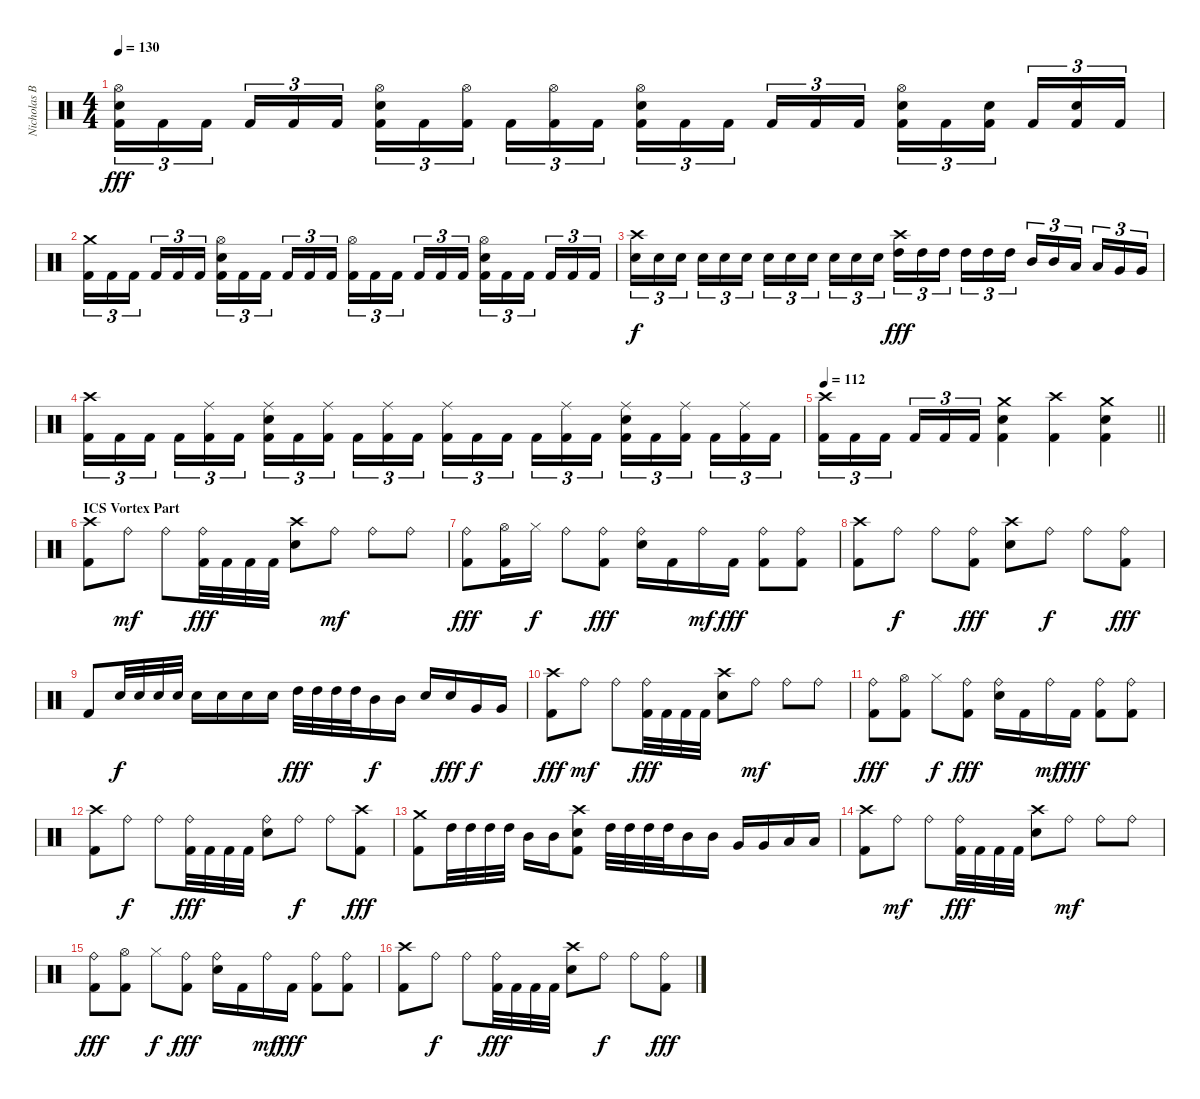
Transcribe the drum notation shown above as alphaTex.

\track ("Nicholas Barker" "Nicholas B") {instrument percussion}
\staff {score}
\articulation defaults
\ts (4 4)
\tempo 130
\clef neutral
\ks c
("Hi-Hat (open)" "Snare (hit) 2" "Kick (hit) 2").16{tu (3 2) dy fff} "Kick (hit) 2".16{tu (3 2)} "Kick (hit) 2".16{tu (3 2) beam splitsecondary} "Kick (hit) 2".16{tu (3 2)} "Kick (hit) 2".16{tu (3 2)} "Kick (hit) 2".16{tu (3 2)} ("Hi-Hat (open)" "Snare (hit) 2" "Kick (hit) 2").16{tu (3 2)} "Kick (hit) 2".16{tu (3 2)} ("Hi-Hat (open)" "Kick (hit) 2").16{tu (3 2) beam splitsecondary} "Kick (hit) 2".16{tu (3 2)} ("Hi-Hat (open)" "Kick (hit) 2").16{tu (3 2)} "Kick (hit) 2".16{tu (3 2)} ("Hi-Hat (open)" "Snare (hit) 2" "Kick (hit) 2").16{tu (3 2)} "Kick (hit) 2".16{tu (3 2)} "Kick (hit) 2".16{tu (3 2) beam splitsecondary} "Kick (hit) 2".16{tu (3 2)} "Kick (hit) 2".16{tu (3 2)} "Kick (hit) 2".16{tu (3 2)} ("Hi-Hat (open)" "Snare (hit) 2" "Kick (hit) 2").16{tu (3 2)} "Kick (hit) 2".16{tu (3 2)} ("Snare (hit) 2" "Kick (hit) 2").16{tu (3 2) beam splitsecondary} "Kick (hit) 2".16{tu (3 2)} ("Snare (hit) 2" "Kick (hit) 2").16{tu (3 2)} "Kick (hit) 2".16{tu (3 2)} |
("Crash medium (hit)" "Kick (hit) 2").16{tu (3 2)} "Kick (hit) 2".16{tu (3 2)} "Kick (hit) 2".16{tu (3 2) beam splitsecondary} "Kick (hit) 2".16{tu (3 2)} "Kick (hit) 2".16{tu (3 2)} "Kick (hit) 2".16{tu (3 2)} ("Hi-Hat (open)" "Snare (hit) 2" "Kick (hit) 2").16{tu (3 2)} "Kick (hit) 2".16{tu (3 2)} "Kick (hit) 2".16{tu (3 2) beam splitsecondary} "Kick (hit) 2".16{tu (3 2)} "Kick (hit) 2".16{tu (3 2)} "Kick (hit) 2".16{tu (3 2)} ("Hi-Hat (open)" "Kick (hit) 2").16{tu (3 2)} "Kick (hit) 2".16{tu (3 2)} "Kick (hit) 2".16{tu (3 2) beam splitsecondary} "Kick (hit) 2".16{tu (3 2)} "Kick (hit) 2".16{tu (3 2)} "Kick (hit) 2".16{tu (3 2)} ("Hi-Hat (open)" "Snare (hit) 2" "Kick (hit) 2").16{tu (3 2)} "Kick (hit) 2".16{tu (3 2)} "Kick (hit) 2".16{tu (3 2) beam splitsecondary} "Kick (hit) 2".16{tu (3 2)} "Kick (hit) 2".16{tu (3 2)} "Kick (hit) 2".16{tu (3 2)} |
("Crash high (hit)" "Snare (hit) 2").16{tu (3 2) dy f} "Snare (hit) 2".16{tu (3 2)} "Snare (hit) 2".16{tu (3 2) beam splitsecondary} "Snare (hit) 2".16{tu (3 2)} "Snare (hit) 2".16{tu (3 2)} "Snare (hit) 2".16{tu (3 2)} "Snare (hit) 2".16{tu (3 2)} "Snare (hit) 2".16{tu (3 2)} "Snare (hit) 2".16{tu (3 2) beam splitsecondary} "Snare (hit) 2".16{tu (3 2)} "Snare (hit) 2".16{tu (3 2)} "Snare (hit) 2".16{tu (3 2)} ("Crash high (hit)" "High Tom (hit)").16{tu (3 2) dy fff} "High Tom (hit)".16{tu (3 2)} "High Tom (hit)".16{tu (3 2) beam splitsecondary} "High Tom (hit)".16{tu (3 2)} "High Tom (hit)".16{tu (3 2)} "High Tom (hit)".16{tu (3 2)} "Mid Tom (hit)".16{tu (3 2)} "Mid Tom (hit)".16{tu (3 2)} "Low Tom (hit)".16{tu (3 2) beam splitsecondary} "Low Tom (hit)".16{tu (3 2)} "Very Low Tom (hit)".16{tu (3 2)} "Very Low Tom (hit)".16{tu (3 2)} |
("Crash high (hit)" "Kick (hit) 2").16{tu (3 2)} "Kick (hit) 2".16{tu (3 2)} "Kick (hit) 2".16{tu (3 2) beam splitsecondary} "Kick (hit) 2".16{tu (3 2)} ("Ride (middle)" "Kick (hit) 2").16{tu (3 2)} "Kick (hit) 2".16{tu (3 2)} ("Ride (middle)" "Snare (hit) 2" "Kick (hit) 2").16{tu (3 2)} "Kick (hit) 2".16{tu (3 2)} ("Ride (middle)" "Kick (hit) 2").16{tu (3 2) beam splitsecondary} "Kick (hit) 2".16{tu (3 2)} ("Ride (middle)" "Kick (hit) 2").16{tu (3 2)} "Kick (hit) 2".16{tu (3 2)} ("Ride (middle)" "Kick (hit) 2").16{tu (3 2)} "Kick (hit) 2".16{tu (3 2)} "Kick (hit) 2".16{tu (3 2) beam splitsecondary} "Kick (hit) 2".16{tu (3 2)} ("Ride (middle)" "Kick (hit) 2").16{tu (3 2)} "Kick (hit) 2".16{tu (3 2)} ("Ride (middle)" "Snare (hit) 2" "Kick (hit) 2").16{tu (3 2)} "Kick (hit) 2".16{tu (3 2)} ("Ride (middle)" "Kick (hit) 2").16{tu (3 2) beam splitsecondary} "Kick (hit) 2".16{tu (3 2)} ("Ride (middle)" "Kick (hit) 2").16{tu (3 2)} "Kick (hit) 2".16{tu (3 2)} |
\tempo 112
\barLineRight lightlight
("Crash high (hit)" "Kick (hit) 2").16{tu (3 2)} "Kick (hit) 2".16{tu (3 2)} "Kick (hit) 2".16{tu (3 2) beam splitsecondary} "Kick (hit) 2".16{tu (3 2)} "Kick (hit) 2".16{tu (3 2)} "Kick (hit) 2".16{tu (3 2)} ("Crash medium (hit)" "Snare (hit) 2" "Kick (hit) 2").4 ("Crash high (hit)" "Kick (hit) 2").4 ("Crash medium (hit)" "Snare (hit) 2" "Kick (hit) 2").4 |
\section ("" "ICS Vortex Part")
("Crash high (hit)" "Kick (hit) 2").8 "Ride (bell)".8{dy mf} "Ride (bell)".8 ("Ride (bell)" "Kick (hit) 2").32{dy fff} "Kick (hit) 2".32 "Kick (hit) 2".32 "Kick (hit) 2".32 ("Crash high (hit)" "Snare (hit) 2").8 "Ride (bell)".8{dy mf} "Ride (bell)".8 "Ride (bell)".8 |
("Ride (bell)" "Kick (hit) 2").8{dy fff} ("Hi-Hat (open)" "Kick (hit) 2").16 "Hi-Hat (closed)".16{dy f} "Ride (bell)".8 ("Ride (bell)" "Kick (hit) 2").8{dy fff} ("Ride (bell)" "Snare (hit) 2").16 "Kick (hit) 2".16 "Ride (bell)".16{dy mf} "Kick (hit) 2".16{dy fff} ("Ride (bell)" "Kick (hit) 2").8 ("Ride (bell)" "Kick (hit) 2").8 |
("Crash high (hit)" "Kick (hit) 2").8 "Ride (bell)".8{dy f} "Ride (bell)".8 ("Ride (bell)" "Kick (hit) 2").8{dy fff} ("Crash high (hit)" "Snare (hit) 2").8 "Ride (bell)".8{dy f} "Ride (bell)".8 ("Ride (bell)" "Kick (hit) 2").8{dy fff} |
"Kick (hit) 2".8 "Snare (hit) 2".32{dy f} "Snare (hit) 2".32 "Snare (hit) 2".32 "Snare (hit) 2".32 "Snare (hit) 2".16 "Snare (hit) 2".16 "Snare (hit) 2".16 "Snare (hit) 2".16 "High Tom (hit)".32{dy fff} "High Tom (hit)".32 "High Tom (hit)".32 "High Tom (hit)".32 "Mid Tom (hit)".16{dy f} "Mid Tom (hit)".16 "Snare (hit) 2".16 "Snare (hit) 2".16{dy fff} "Very Low Tom (hit)".16{dy f} "Very Low Tom (hit)".16 |
("Crash high (hit)" "Kick (hit) 2").8{dy fff} "Ride (bell)".8{dy mf} "Ride (bell)".8 ("Ride (bell)" "Kick (hit) 2").32{dy fff} "Kick (hit) 2".32 "Kick (hit) 2".32 "Kick (hit) 2".32 ("Crash high (hit)" "Snare (hit) 2").8 "Ride (bell)".8{dy mf} "Ride (bell)".8 "Ride (bell)".8 |
("Ride (bell)" "Kick (hit) 2").8{dy fff} ("Hi-Hat (open)" "Kick (hit) 2").8 "Hi-Hat (closed)".8{dy f} ("Ride (bell)" "Kick (hit) 2").8{dy fff} ("Ride (bell)" "Snare (hit) 2").16 "Kick (hit) 2".16 "Ride (bell)".16{dy mf} "Kick (hit) 2".16{dy fff} ("Ride (bell)" "Kick (hit) 2").8 ("Ride (bell)" "Kick (hit) 2").8 |
("Crash high (hit)" "Kick (hit) 2").8 "Ride (bell)".8{dy f} "Ride (bell)".8 ("Ride (bell)" "Kick (hit) 2").32{dy fff} "Kick (hit) 2".32 "Kick (hit) 2".32 "Kick (hit) 2".32 ("Ride (bell)" "Snare (hit) 2").8 "Ride (bell)".8{dy f} "Ride (bell)".8 ("Crash high (hit)" "Kick (hit) 2").8{dy fff} |
("Crash medium (hit)" "Kick (hit) 2").8 "High Tom (hit)".32 "High Tom (hit)".32 "High Tom (hit)".32 "High Tom (hit)".32 "Mid Tom (hit)".16 "Mid Tom (hit)".16 ("Crash high (hit)" "Snare (hit) 2" "Kick (hit) 2").8 "High Tom (hit)".32 "High Tom (hit)".32 "High Tom (hit)".32 "High Tom (hit)".32 "Mid Tom (hit)".16 "Mid Tom (hit)".16 "Very Low Tom (hit)".16 "Very Low Tom (hit)".16 "Low Floor Tom (hit)".16 "Low Floor Tom (hit)".16 |
("Crash high (hit)" "Kick (hit) 2").8 "Ride (bell)".8{dy mf} "Ride (bell)".8 ("Ride (bell)" "Kick (hit) 2").32{dy fff} "Kick (hit) 2".32 "Kick (hit) 2".32 "Kick (hit) 2".32 ("Crash high (hit)" "Snare (hit) 2").8 "Ride (bell)".8{dy mf} "Ride (bell)".8 "Ride (bell)".8 |
("Ride (bell)" "Kick (hit) 2").8{dy fff} ("Hi-Hat (open)" "Kick (hit) 2").8 "Hi-Hat (closed)".8{dy f} ("Ride (bell)" "Kick (hit) 2").8{dy fff} ("Ride (bell)" "Snare (hit) 2").16 "Kick (hit) 2".16 "Ride (bell)".16{dy mf} "Kick (hit) 2".16{dy fff} ("Ride (bell)" "Kick (hit) 2").8 ("Ride (bell)" "Kick (hit) 2").8 |
("Crash high (hit)" "Kick (hit) 2").8 "Ride (bell)".8{dy f} "Ride (bell)".8 ("Ride (bell)" "Kick (hit) 2").32{dy fff} "Kick (hit) 2".32 "Kick (hit) 2".32 "Kick (hit) 2".32 ("Crash high (hit)" "Snare (hit) 2").8 "Ride (bell)".8{dy f} "Ride (bell)".8 ("Ride (bell)" "Kick (hit) 2").8{dy fff}
